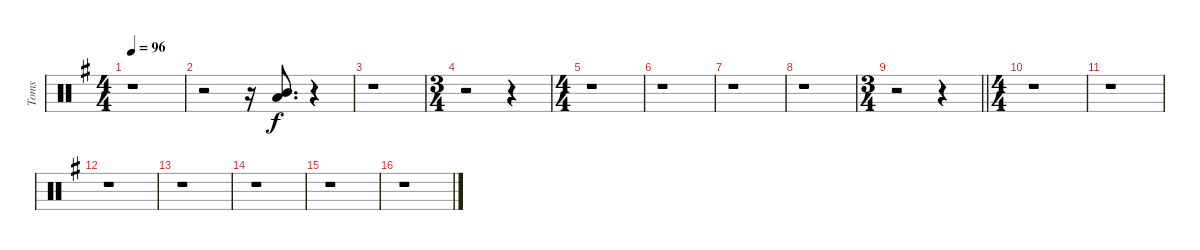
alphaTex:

\track ("Toms" "Toms") {instrument percussion}
\staff {score}
\articulation defaults
\ts (4 4)
\tempo 96
\clef neutral
\ks g
r.1{dy f} |
r.2 r.16 ("Mid Tom (hit)" "Low Tom (hit)").8{d volume 16 balance 6} r.4 |
r.1 |
\ts (3 4)
r.2 r.4 |
\ts (4 4)
r.1 |
r.1 |
r.1 |
r.1 |
\ts (3 4)
\barLineRight lightlight
r.2 r.4 |
\ts (4 4)
r.1 |
r.1 |
r.1 |
r.1 |
r.1 |
r.1 |
r.1
